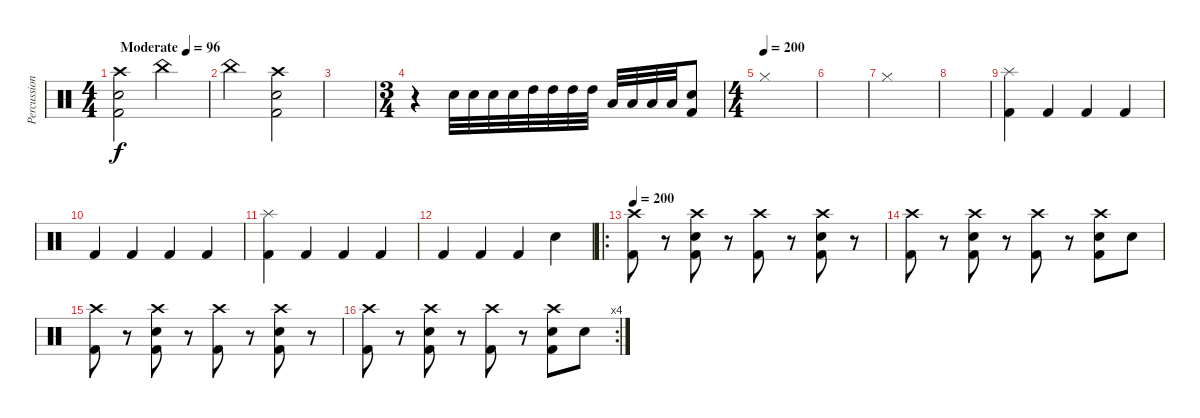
\track ("Percussion" "Percussion") {instrument percussion}
\staff {score}
\articulation defaults
\ts (4 4)
\tempo (96 "Moderate")
\clef neutral
\ks c
("Crash high (hit)" "Electric Snare (hit)" "Kick (hit) 2").2{dy f} "China (hit)".2 |
"China (hit)".2 ("Crash high (hit)" "Electric Snare (hit)" "Kick (hit) 2").2 |
|
\ts (3 4)
r.4 "Electric Snare (hit)".32 "Electric Snare (hit)".32 "Electric Snare (hit)".32 "Electric Snare (hit)".32 "High Tom (hit)".32 "High Tom (hit)".32 "High Tom (hit)".32 "High Tom (hit)".32 "Low Tom (hit)".32 "Low Tom (hit)".32 "Low Tom (hit)".32 "Low Tom (hit)".32 ("Electric Snare (hit)" "Kick (hit) 2").8 |
\ts (4 4)
\tempo (200)
"Hi-Hat (closed)".1 |
|
"Hi-Hat (closed)".1 |
|
("Splash (hit)" "Kick (hit) 2").4 "Kick (hit) 2".4 "Kick (hit) 2".4 "Kick (hit) 2".4 |
"Kick (hit) 2".4 "Kick (hit) 2".4 "Kick (hit) 2".4 "Kick (hit) 2".4 |
("Splash (hit)" "Kick (hit) 2").4 "Kick (hit) 2".4 "Kick (hit) 2".4 "Kick (hit) 2".4 |
"Kick (hit) 2".4 "Kick (hit) 2".4 "Kick (hit) 2".4 "Electric Snare (hit)".4 |
\ro
\tempo 200
("Crash high (hit)" "Kick (hit) 2").8 r.8 ("Crash high (hit)" "Electric Snare (hit)" "Kick (hit) 2").8 r.8 ("Crash high (hit)" "Kick (hit) 2").8 r.8 ("Crash high (hit)" "Electric Snare (hit)" "Kick (hit) 2").8 r.8 |
("Crash high (hit)" "Kick (hit) 2").8 r.8 ("Crash high (hit)" "Electric Snare (hit)" "Kick (hit) 2").8 r.8 ("Crash high (hit)" "Kick (hit) 2").8 r.8 ("Crash high (hit)" "Electric Snare (hit)" "Kick (hit) 2").8 "Electric Snare (hit)".8 |
("Crash high (hit)" "Kick (hit) 2").8 r.8 ("Crash high (hit)" "Electric Snare (hit)" "Kick (hit) 2").8 r.8 ("Crash high (hit)" "Kick (hit) 2").8 r.8 ("Crash high (hit)" "Electric Snare (hit)" "Kick (hit) 2").8 r.8 |
\rc 4
("Crash high (hit)" "Kick (hit) 2").8 r.8 ("Crash high (hit)" "Electric Snare (hit)" "Kick (hit) 2").8 r.8 ("Crash high (hit)" "Kick (hit) 2").8 r.8 ("Crash high (hit)" "Electric Snare (hit)" "Kick (hit) 2").8 "Electric Snare (hit)".8
